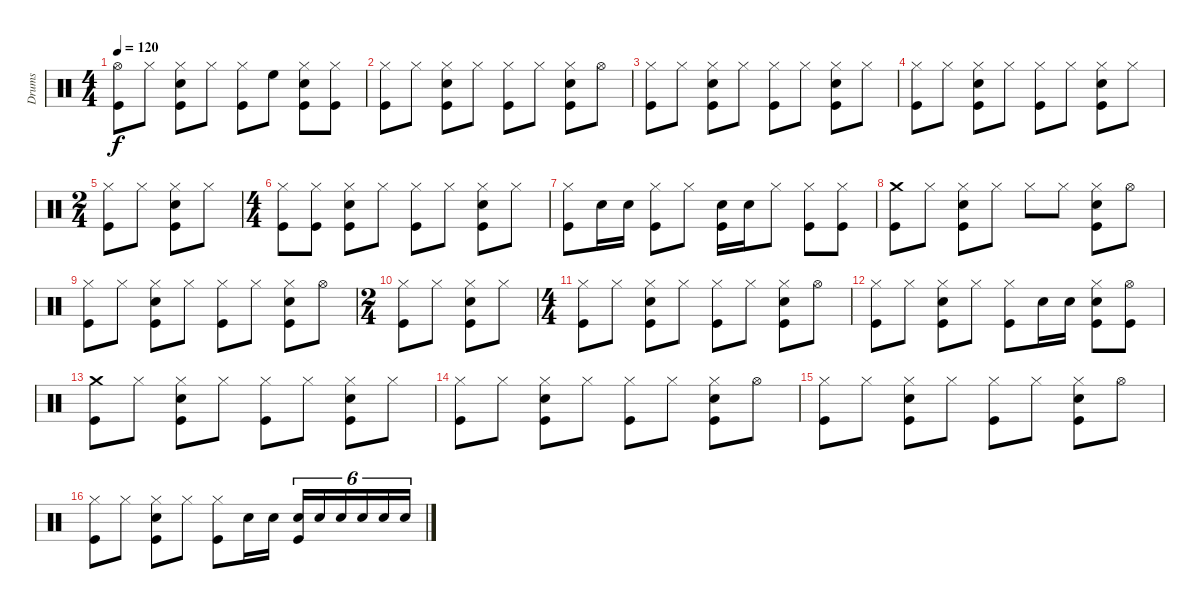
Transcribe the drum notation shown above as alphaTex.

\track ("Drums" "Drums") {instrument percussion}
\staff {score}
\articulation defaults
\ts (4 4)
\tempo 120
\clef neutral
\ks c
("Hi-Hat (open)" "Kick (hit)").8{dy f} "Hi-Hat (closed)".8 ("Hi-Hat (closed)" "Snare (hit) 2" "Kick (hit)").8 "Hi-Hat (closed)".8 ("Hi-Hat (closed)" "Kick (hit)").8 "High Floor Tom (hit)".8 ("Hi-Hat (closed)" "Snare (hit) 2" "Kick (hit)").8 ("Hi-Hat (closed)" "Kick (hit)").8 |
("Hi-Hat (closed)" "Kick (hit)").8 "Hi-Hat (closed)".8 ("Hi-Hat (closed)" "Snare (hit) 2" "Kick (hit)").8 "Hi-Hat (closed)".8 ("Hi-Hat (closed)" "Kick (hit)").8 "Hi-Hat (closed)".8 ("Hi-Hat (closed)" "Snare (hit) 2" "Kick (hit)").8 "Hi-Hat (open)".8 |
("Hi-Hat (closed)" "Kick (hit)").8 "Hi-Hat (closed)".8 ("Hi-Hat (closed)" "Snare (hit) 2" "Kick (hit)").8 "Hi-Hat (closed)".8 ("Hi-Hat (closed)" "Kick (hit)").8 "Hi-Hat (closed)".8 ("Hi-Hat (closed)" "Snare (hit) 2" "Kick (hit)").8 "Hi-Hat (closed)".8 |
("Hi-Hat (closed)" "Kick (hit)").8 "Hi-Hat (closed)".8 ("Hi-Hat (closed)" "Snare (hit) 2" "Kick (hit)").8 "Hi-Hat (closed)".8 ("Hi-Hat (closed)" "Kick (hit)").8 "Hi-Hat (closed)".8 ("Hi-Hat (closed)" "Snare (hit) 2" "Kick (hit)").8 "Hi-Hat (closed)".8 |
\ts (2 4)
("Hi-Hat (closed)" "Kick (hit)").8 "Hi-Hat (closed)".8 ("Hi-Hat (closed)" "Snare (hit) 2" "Kick (hit)").8 "Hi-Hat (closed)".8 |
\ts (4 4)
("Hi-Hat (closed)" "Kick (hit)").8 ("Hi-Hat (closed)" "Kick (hit)").8 ("Hi-Hat (closed)" "Snare (hit) 2" "Kick (hit)").8 "Hi-Hat (closed)".8 ("Hi-Hat (closed)" "Kick (hit)").8 "Hi-Hat (closed)".8 ("Hi-Hat (closed)" "Snare (hit) 2" "Kick (hit)").8 "Hi-Hat (closed)".8 |
("Hi-Hat (closed)" "Kick (hit)").8 "Snare (hit) 2".16 "Snare (hit) 2".16 ("Hi-Hat (closed)" "Kick (hit)").8 "Hi-Hat (closed)".8 ("Snare (hit) 2" "Kick (hit)").16 "Snare (hit) 2".16 "Hi-Hat (closed)".8 ("Hi-Hat (closed)" "Kick (hit)").8 ("Hi-Hat (closed)" "Kick (hit)").8 |
("Crash medium (hit)" "Kick (hit)").8 "Hi-Hat (closed)".8 ("Hi-Hat (closed)" "Snare (hit) 2" "Kick (hit)").8 "Hi-Hat (closed)".8 "Hi-Hat (closed)".8 "Hi-Hat (closed)".8 ("Hi-Hat (closed)" "Snare (hit) 2" "Kick (hit)").8 "Hi-Hat (open)".8 |
("Hi-Hat (closed)" "Kick (hit)").8 "Hi-Hat (closed)".8 ("Hi-Hat (closed)" "Snare (hit) 2" "Kick (hit)").8 "Hi-Hat (closed)".8 ("Hi-Hat (closed)" "Kick (hit)").8 "Hi-Hat (closed)".8 ("Hi-Hat (closed)" "Snare (hit) 2" "Kick (hit)").8 "Hi-Hat (open)".8 |
\ts (2 4)
("Hi-Hat (closed)" "Kick (hit)").8 "Hi-Hat (closed)".8 ("Hi-Hat (closed)" "Snare (hit) 2" "Kick (hit)").8 "Hi-Hat (closed)".8 |
\ts (4 4)
("Hi-Hat (closed)" "Kick (hit)").8 "Hi-Hat (closed)".8 ("Hi-Hat (closed)" "Snare (hit) 2" "Kick (hit)").8 "Hi-Hat (closed)".8 ("Hi-Hat (closed)" "Kick (hit)").8 "Hi-Hat (closed)".8 ("Hi-Hat (closed)" "Snare (hit) 2" "Kick (hit)").8 "Hi-Hat (open)".8 |
("Hi-Hat (closed)" "Kick (hit)").8 "Hi-Hat (closed)".8 ("Hi-Hat (closed)" "Snare (hit) 2" "Kick (hit)").8 "Hi-Hat (closed)".8 ("Hi-Hat (closed)" "Kick (hit)").8 "Snare (hit) 2".16 "Snare (hit) 2".16 ("Hi-Hat (closed)" "Snare (hit) 2" "Kick (hit)").8 ("Hi-Hat (open)" "Kick (hit)").8 |
("Crash medium (hit)" "Kick (hit)").8 "Hi-Hat (closed)".8 ("Hi-Hat (closed)" "Snare (hit) 2" "Kick (hit)").8 "Hi-Hat (closed)".8 ("Hi-Hat (closed)" "Kick (hit)").8 "Hi-Hat (closed)".8 ("Hi-Hat (closed)" "Snare (hit) 2" "Kick (hit)").8 "Hi-Hat (closed)".8 |
("Hi-Hat (closed)" "Kick (hit)").8 "Hi-Hat (closed)".8 ("Hi-Hat (closed)" "Snare (hit) 2" "Kick (hit)").8 "Hi-Hat (closed)".8 ("Hi-Hat (closed)" "Kick (hit)").8 "Hi-Hat (closed)".8 ("Hi-Hat (closed)" "Snare (hit) 2" "Kick (hit)").8 "Hi-Hat (open)".8 |
("Hi-Hat (closed)" "Kick (hit)").8 "Hi-Hat (closed)".8 ("Hi-Hat (closed)" "Snare (hit) 2" "Kick (hit)").8 "Hi-Hat (closed)".8 ("Hi-Hat (closed)" "Kick (hit)").8 "Hi-Hat (closed)".8 ("Hi-Hat (closed)" "Snare (hit) 2" "Kick (hit)").8 "Hi-Hat (open)".8 |
("Hi-Hat (closed)" "Kick (hit)").8 "Hi-Hat (closed)".8 ("Hi-Hat (closed)" "Snare (hit) 2" "Kick (hit)").8 "Hi-Hat (closed)".8 ("Hi-Hat (closed)" "Kick (hit)").8 "Snare (hit) 2".16 "Snare (hit) 2".16 ("Snare (hit) 2" "Kick (hit)").16{tu (6 4)} "Snare (hit) 2".16{tu (6 4)} "Snare (hit) 2".16{tu (6 4)} "Snare (hit) 2".16{tu (6 4)} "Snare (hit) 2".16{tu (6 4)} "Snare (hit) 2".16{tu (6 4)}
